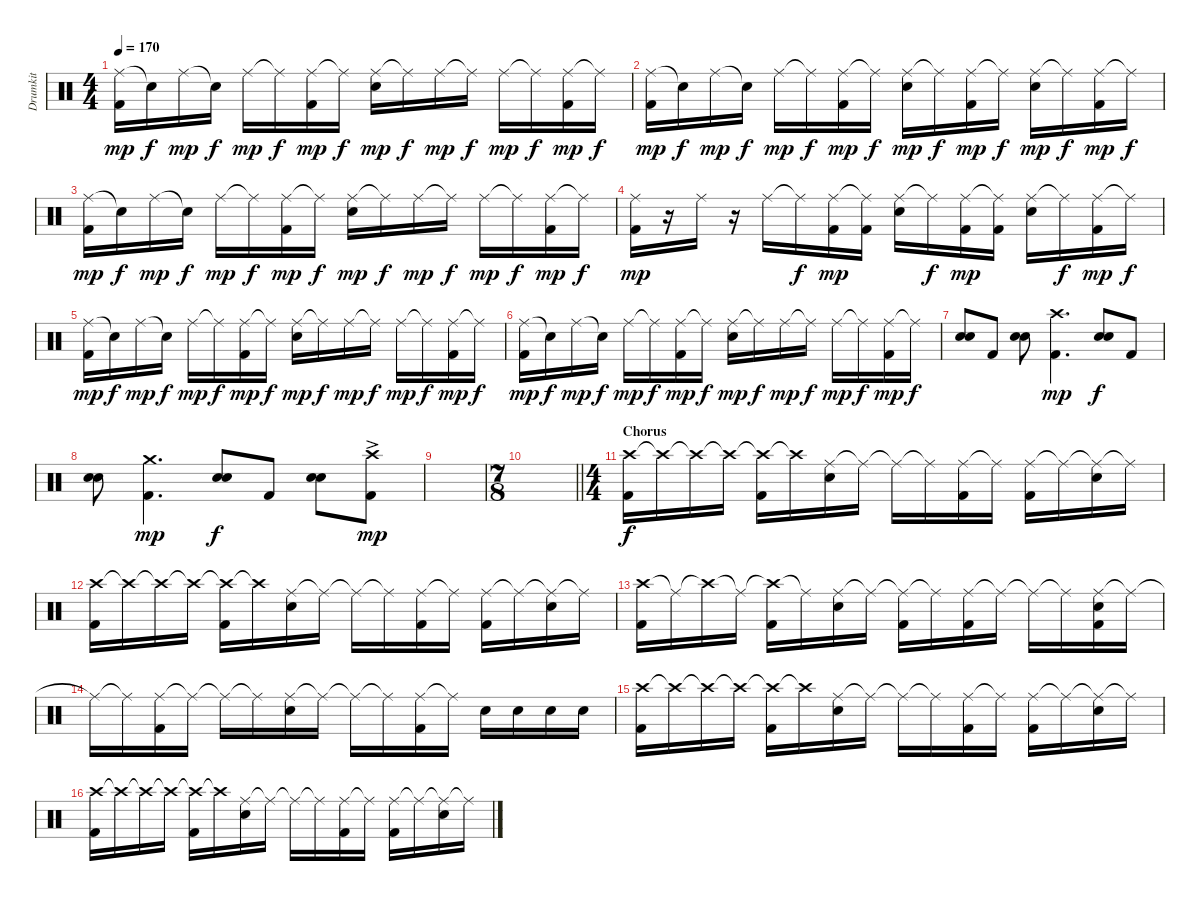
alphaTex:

\track ("Drumkit" "Drumkit") {instrument percussion}
\staff {score}
\articulation defaults
\ts (4 4)
\tempo 170
\clef neutral
\ks c
("Ride (middle)" "Kick (hit) 2").16{dy mp} "Snare (hit)"{t}.16{dy f} "Ride (middle)".16{dy mp} "Snare (hit)"{t}.16{dy f} "Ride (middle)".16{dy mp} "Ride (middle)"{t}.16{dy f} ("Ride (middle)" "Kick (hit) 2").16{dy mp} "Ride (middle)"{t}.16{dy f} ("Ride (middle)" "Snare (hit) 2").16{dy mp} "Ride (middle)"{t}.16{dy f} "Ride (middle)".16{dy mp} "Ride (middle)"{t}.16{dy f} "Ride (middle)".16{dy mp} "Ride (middle)"{t}.16{dy f} ("Ride (middle)" "Kick (hit) 2").16{dy mp} "Ride (middle)"{t}.16{dy f} |
("Ride (middle)" "Kick (hit) 2").16{dy mp} "Snare (hit)"{t}.16{dy f} "Ride (middle)".16{dy mp} "Snare (hit)"{t}.16{dy f} "Ride (middle)".16{dy mp} "Ride (middle)"{t}.16{dy f} ("Ride (middle)" "Kick (hit) 2").16{dy mp} "Ride (middle)"{t}.16{dy f} ("Ride (middle)" "Snare (hit) 2").16{dy mp} "Ride (middle)"{t}.16{dy f} ("Ride (middle)" "Kick (hit) 2").16{dy mp} "Ride (middle)"{t}.16{dy f} ("Ride (middle)" "Snare (hit) 2").16{dy mp} "Ride (middle)"{t}.16{dy f} ("Ride (middle)" "Kick (hit) 2").16{dy mp} "Ride (middle)"{t}.16{dy f} |
("Ride (middle)" "Kick (hit) 2").16{dy mp} "Snare (hit)"{t}.16{dy f} "Ride (middle)".16{dy mp} "Snare (hit)"{t}.16{dy f} "Ride (middle)".16{dy mp} "Ride (middle)"{t}.16{dy f} ("Ride (middle)" "Kick (hit) 2").16{dy mp} "Ride (middle)"{t}.16{dy f} ("Ride (middle)" "Snare (hit) 2").16{dy mp} "Ride (middle)"{t}.16{dy f} "Ride (middle)".16{dy mp} "Ride (middle)"{t}.16{dy f} "Ride (middle)".16{dy mp} "Ride (middle)"{t}.16{dy f} ("Ride (middle)" "Kick (hit) 2").16{dy mp} "Ride (middle)"{t}.16{dy f} |
("Ride (middle)" "Kick (hit) 2").16{dy mp} r.16 "Ride (middle)".16 r.16 "Ride (middle)".16 "Ride (middle)"{t}.16{dy f} ("Ride (middle)" "Kick (hit) 2").16{dy mp} ("Ride (middle)"{t} "Kick (hit) 2").16 ("Ride (middle)" "Snare (hit) 2").16 "Ride (middle)"{t}.16{dy f} ("Ride (middle)" "Kick (hit) 2").16{dy mp} ("Ride (middle)"{t} "Kick (hit) 2").16 ("Ride (middle)" "Snare (hit) 2").16 "Ride (middle)"{t}.16{dy f} ("Ride (middle)" "Kick (hit) 2").16{dy mp} "Ride (middle)"{t}.16{dy f} |
("Ride (middle)" "Kick (hit) 2").16{dy mp} "Snare (hit)"{t}.16{dy f} "Ride (middle)".16{dy mp} "Snare (hit)"{t}.16{dy f} "Ride (middle)".16{dy mp} "Ride (middle)"{t}.16{dy f} ("Ride (middle)" "Kick (hit) 2").16{dy mp} "Ride (middle)"{t}.16{dy f} ("Ride (middle)" "Snare (hit) 2").16{dy mp} "Ride (middle)"{t}.16{dy f} "Ride (middle)".16{dy mp} "Ride (middle)"{t}.16{dy f} "Ride (middle)".16{dy mp} "Ride (middle)"{t}.16{dy f} ("Ride (middle)" "Kick (hit) 2").16{dy mp} "Ride (middle)"{t}.16{dy f} |
("Ride (middle)" "Kick (hit) 2").16{dy mp} "Snare (hit)"{t}.16{dy f} "Ride (middle)".16{dy mp} "Snare (hit)"{t}.16{dy f} "Ride (middle)".16{dy mp} "Ride (middle)"{t}.16{dy f} ("Ride (middle)" "Kick (hit) 2").16{dy mp} "Ride (middle)"{t}.16{dy f} ("Ride (middle)" "Snare (hit) 2").16{dy mp} "Ride (middle)"{t}.16{dy f} "Ride (middle)".16{dy mp} "Ride (middle)"{t}.16{dy f} "Ride (middle)".16{dy mp} "Ride (middle)"{t}.16{dy f} ("Ride (middle)" "Kick (hit) 2").16{dy mp} "Ride (middle)"{t}.16{dy f} |
("Snare (hit) 2" "Snare (hit) 2").8 "Kick (hit) 2".8 ("Snare (hit) 2" "Snare (hit) 2").8 ("Crash high (hit)" "Kick (hit) 2").4{d dy mp} ("Snare (hit) 2" "Snare (hit) 2").8{dy f} "Kick (hit) 2".8 |
("Snare (hit) 2" "Snare (hit) 2").8 ("Crash medium (hit)" "Kick (hit) 2").4{d dy mp} ("Snare (hit) 2" "Snare (hit) 2").8{dy f} "Kick (hit) 2".8 ("Snare (hit) 2" "Snare (hit) 2").8 ("Crash high (hit)"{ac} "Kick (hit) 2").8{dy mp} |
|
\ts (7 8)
\barLineRight lightlight
|
\ts (4 4)
\section ("" "Chorus")
("Crash high (hit)" "Kick (hit) 2").16{dy f} "Crash high (hit)"{t}.16 "Crash high (hit)"{t}.16 "Crash high (hit)"{t}.16 ("Crash high (hit)"{t} "Kick (hit) 2").16 "Crash high (hit)"{t}.16 ("Ride (middle)" "Snare (hit) 2").16 "Ride (middle)"{t}.16 "Ride (middle)"{t}.16 "Ride (middle)"{t}.16 ("Ride (middle)" "Kick (hit) 2").16 "Ride (middle)"{t}.16 ("Ride (middle)" "Kick (hit) 2").16 "Ride (middle)"{t}.16 ("Ride (middle)"{t} "Snare (hit) 2").16 "Ride (middle)"{t}.16 |
("Crash high (hit)" "Kick (hit) 2").16 "Crash high (hit)"{t}.16 "Crash high (hit)"{t}.16 "Crash high (hit)"{t}.16 ("Crash high (hit)"{t} "Kick (hit) 2").16 "Crash high (hit)"{t}.16 ("Ride (middle)" "Snare (hit) 2").16 "Ride (middle)"{t}.16 "Ride (middle)"{t}.16 "Ride (middle)"{t}.16 ("Ride (middle)" "Kick (hit) 2").16 "Ride (middle)"{t}.16 ("Ride (middle)" "Kick (hit) 2").16 "Ride (middle)"{t}.16 ("Ride (middle)"{t} "Snare (hit) 2").16 "Ride (middle)"{t}.16 |
("Crash high (hit)" "Kick (hit) 2").16 "Ride (middle)"{t}.16 "Crash high (hit)"{t}.16 "Ride (middle)"{t}.16 ("Crash high (hit)"{t} "Kick (hit) 2").16 "Ride (middle)"{t}.16 ("Ride (middle)" "Snare (hit) 2").16 "Ride (middle)"{t}.16 ("Ride (middle)"{t} "Kick (hit) 2").16 "Ride (middle)"{t}.16 ("Ride (middle)" "Kick (hit) 2").16 "Ride (middle)"{t}.16 "Ride (middle)"{t}.16 "Ride (middle)"{t}.16 ("Ride (middle)" "Snare (hit) 2" "Kick (hit) 2").16 "Ride (middle)"{t}.16 |
"Ride (middle)"{t}.16 "Ride (middle)"{t}.16 ("Ride (middle)" "Kick (hit) 2").16 "Ride (middle)"{t}.16 "Ride (middle)"{t}.16 "Ride (middle)"{t}.16 ("Ride (middle)" "Snare (hit) 2").16 "Ride (middle)"{t}.16 "Ride (middle)"{t}.16 "Ride (middle)"{t}.16 ("Ride (middle)" "Kick (hit) 2").16 "Ride (middle)"{t}.16 "Snare (hit) 2".16 "Snare (hit) 2".16 "Snare (hit) 2".16 "Snare (hit) 2".16 |
("Crash high (hit)" "Kick (hit) 2").16 "Crash high (hit)"{t}.16 "Crash high (hit)"{t}.16 "Crash high (hit)"{t}.16 ("Crash high (hit)"{t} "Kick (hit) 2").16 "Crash high (hit)"{t}.16 ("Ride (middle)" "Snare (hit) 2").16 "Ride (middle)"{t}.16 "Ride (middle)"{t}.16 "Ride (middle)"{t}.16 ("Ride (middle)" "Kick (hit) 2").16 "Ride (middle)"{t}.16 ("Ride (middle)" "Kick (hit) 2").16 "Ride (middle)"{t}.16 ("Ride (middle)"{t} "Snare (hit) 2").16 "Ride (middle)"{t}.16 |
("Crash high (hit)" "Kick (hit) 2").16 "Crash high (hit)"{t}.16 "Crash high (hit)"{t}.16 "Crash high (hit)"{t}.16 ("Crash high (hit)"{t} "Kick (hit) 2").16 "Crash high (hit)"{t}.16 ("Ride (middle)" "Snare (hit) 2").16 "Ride (middle)"{t}.16 "Ride (middle)"{t}.16 "Ride (middle)"{t}.16 ("Ride (middle)" "Kick (hit) 2").16 "Ride (middle)"{t}.16 ("Ride (middle)" "Kick (hit) 2").16 "Ride (middle)"{t}.16 ("Ride (middle)"{t} "Snare (hit) 2").16 "Ride (middle)"{t}.16
